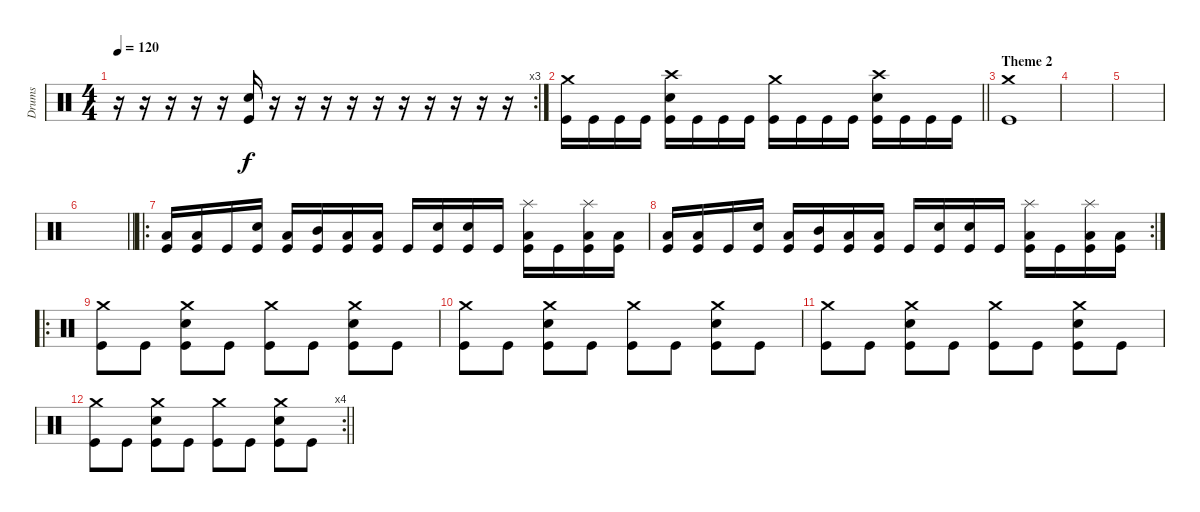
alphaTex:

\track ("Drums" "Drums") {instrument percussion}
\staff {score}
\articulation defaults
\rc 3
\ts (4 4)
\tempo 120
\clef neutral
\ks c
r.16{dy f} r.16 r.16 r.16 r.16 ("Snare (hit) 2" "Kick (hit)").16 r.16 r.16 r.16 r.16 r.16 r.16 r.16 r.16 r.16 r.16 |
\barLineRight lightlight
("Crash medium (hit)" "Kick (hit)").16 "Kick (hit)".16 "Kick (hit)".16 "Kick (hit)".16 ("Crash high (hit)" "Snare (hit) 2" "Kick (hit)").16 "Kick (hit)".16 "Kick (hit)".16 "Kick (hit)".16 ("Crash medium (hit)" "Kick (hit)").16 "Kick (hit)".16 "Kick (hit)".16 "Kick (hit)".16 ("Crash high (hit)" "Snare (hit) 2" "Kick (hit)").16 "Kick (hit)".16 "Kick (hit)".16 "Kick (hit)".16 |
\section ("" "Theme 2")
("Crash medium (hit)" "Kick (hit)").1 |
|
|
\barLineRight lightlight
|
\ro
\section ("" "")
("Low Floor Tom (hit)" "Kick (hit)").16 ("Low Floor Tom (hit)" "Kick (hit)").16 "Kick (hit)".16 ("Snare (hit) 2" "Kick (hit)").16 ("Low Floor Tom (hit)" "Kick (hit)").16 ("Mid Tom (hit)" "Kick (hit)").16 ("Low Tom (hit)" "Kick (hit)").16 ("Low Floor Tom (hit)" "Kick (hit)").16 "Kick (hit)".16 ("Snare (hit) 2" "Kick (hit)").16 ("Snare (hit) 2" "Kick (hit)").16 "Kick (hit)".16 ("Splash (hit)" "Low Floor Tom (hit)" "Kick (hit)").16 "Kick (hit)".16 ("Splash (hit)" "Low Floor Tom (hit)" "Kick (hit)").16 ("Low Floor Tom (hit)" "Kick (hit)").16 |
\rc 2
("Low Floor Tom (hit)" "Kick (hit)").16 ("Low Floor Tom (hit)" "Kick (hit)").16 "Kick (hit)".16 ("Snare (hit) 2" "Kick (hit)").16 ("Low Floor Tom (hit)" "Kick (hit)").16 ("Mid Tom (hit)" "Kick (hit)").16 ("Low Tom (hit)" "Kick (hit)").16 ("Low Floor Tom (hit)" "Kick (hit)").16 "Kick (hit)".16 ("Snare (hit) 2" "Kick (hit)").16 ("Snare (hit) 2" "Kick (hit)").16 "Kick (hit)".16 ("Splash (hit)" "Low Floor Tom (hit)" "Kick (hit)").16 "Kick (hit)".16 ("Splash (hit)" "Low Floor Tom (hit)" "Kick (hit)").16 ("Low Floor Tom (hit)" "Kick (hit)").16 |
\ro
("Crash medium (hit)" "Kick (hit)").8 "Kick (hit)".8 ("Crash medium (hit)" "Snare (hit) 2" "Kick (hit)").8 "Kick (hit)".8 ("Crash medium (hit)" "Kick (hit)").8 "Kick (hit)".8 ("Crash medium (hit)" "Snare (hit) 2" "Kick (hit)").8 "Kick (hit)".8 |
("Crash medium (hit)" "Kick (hit)").8 "Kick (hit)".8 ("Crash medium (hit)" "Snare (hit) 2" "Kick (hit)").8 "Kick (hit)".8 ("Crash medium (hit)" "Kick (hit)").8 "Kick (hit)".8 ("Crash medium (hit)" "Snare (hit) 2" "Kick (hit)").8 "Kick (hit)".8 |
("Crash medium (hit)" "Kick (hit)").8 "Kick (hit)".8 ("Crash medium (hit)" "Snare (hit) 2" "Kick (hit)").8 "Kick (hit)".8 ("Crash medium (hit)" "Kick (hit)").8 "Kick (hit)".8 ("Crash medium (hit)" "Snare (hit) 2" "Kick (hit)").8 "Kick (hit)".8 |
\rc 4
\barLineRight lightlight
("Crash medium (hit)" "Kick (hit)").8 "Kick (hit)".8 ("Crash medium (hit)" "Snare (hit) 2" "Kick (hit)").8 "Kick (hit)".8 ("Crash medium (hit)" "Kick (hit)").8 "Kick (hit)".8 ("Crash medium (hit)" "Snare (hit) 2" "Kick (hit)").8 "Kick (hit)".8
